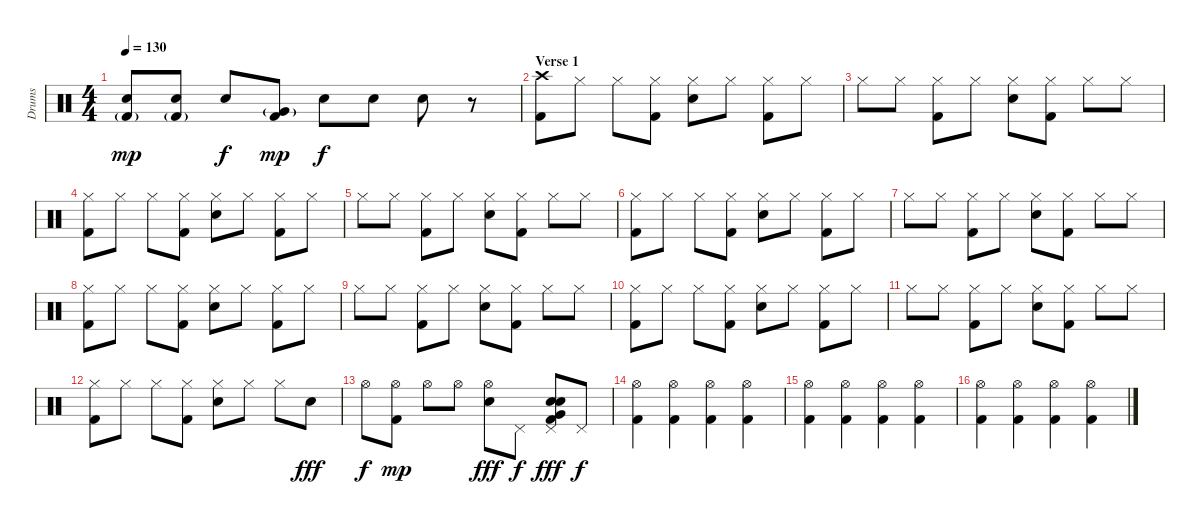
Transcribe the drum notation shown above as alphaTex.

\track ("Drums" "Drums") {instrument percussion}
\staff {score}
\articulation defaults
\ts (4 4)
\tempo 130
\clef neutral
\ks c
("Snare (hit) 2" "Kick (hit) 2"{g}).8{dy mp} ("Snare (hit) 2" "Kick (hit) 2"{g}).8 "Snare (hit) 2".8{dy f} ("Very Low Tom (hit)"{g} "Kick (hit) 2").8{dy mp} "Snare (hit) 2".8{dy f} "Snare (hit) 2".8 "Snare (hit) 2".8 r.8 |
\section ("" "Verse 1")
("Crash high (hit)" "Kick (hit) 2").8 "Hi-Hat (closed)".8 "Hi-Hat (closed)".8 ("Hi-Hat (closed)" "Kick (hit) 2").8 ("Hi-Hat (closed)" "Snare (hit) 2").8 "Hi-Hat (closed)".8 ("Hi-Hat (closed)" "Kick (hit) 2").8 "Hi-Hat (closed)".8 |
"Hi-Hat (closed)".8 "Hi-Hat (closed)".8 ("Hi-Hat (closed)" "Kick (hit) 2").8 "Hi-Hat (closed)".8 ("Hi-Hat (closed)" "Snare (hit) 2").8 ("Hi-Hat (closed)" "Kick (hit) 2").8 "Hi-Hat (closed)".8 "Hi-Hat (closed)".8 |
("Hi-Hat (closed)" "Kick (hit) 2").8 "Hi-Hat (closed)".8 "Hi-Hat (closed)".8 ("Hi-Hat (closed)" "Kick (hit) 2").8 ("Hi-Hat (closed)" "Snare (hit) 2").8 "Hi-Hat (closed)".8 ("Hi-Hat (closed)" "Kick (hit) 2").8 "Hi-Hat (closed)".8 |
"Hi-Hat (closed)".8 "Hi-Hat (closed)".8 ("Hi-Hat (closed)" "Kick (hit) 2").8 "Hi-Hat (closed)".8 ("Hi-Hat (closed)" "Snare (hit) 2").8 ("Hi-Hat (closed)" "Kick (hit) 2").8 "Hi-Hat (closed)".8 "Hi-Hat (closed)".8 |
("Hi-Hat (closed)" "Kick (hit) 2").8 "Hi-Hat (closed)".8 "Hi-Hat (closed)".8 ("Hi-Hat (closed)" "Kick (hit) 2").8 ("Hi-Hat (closed)" "Snare (hit) 2").8 "Hi-Hat (closed)".8 ("Hi-Hat (closed)" "Kick (hit) 2").8 "Hi-Hat (closed)".8 |
"Hi-Hat (closed)".8 "Hi-Hat (closed)".8 ("Hi-Hat (closed)" "Kick (hit) 2").8 "Hi-Hat (closed)".8 ("Hi-Hat (closed)" "Snare (hit) 2").8 ("Hi-Hat (closed)" "Kick (hit) 2").8 "Hi-Hat (closed)".8 "Hi-Hat (closed)".8 |
("Hi-Hat (closed)" "Kick (hit) 2").8 "Hi-Hat (closed)".8 "Hi-Hat (closed)".8 ("Hi-Hat (closed)" "Kick (hit) 2").8 ("Hi-Hat (closed)" "Snare (hit) 2").8 "Hi-Hat (closed)".8 ("Hi-Hat (closed)" "Kick (hit) 2").8 "Hi-Hat (closed)".8 |
"Hi-Hat (closed)".8 "Hi-Hat (closed)".8 ("Hi-Hat (closed)" "Kick (hit) 2").8 "Hi-Hat (closed)".8 ("Hi-Hat (closed)" "Snare (hit) 2").8 ("Hi-Hat (closed)" "Kick (hit) 2").8 "Hi-Hat (closed)".8 "Hi-Hat (closed)".8 |
("Hi-Hat (closed)" "Kick (hit) 2").8 "Hi-Hat (closed)".8 "Hi-Hat (closed)".8 ("Hi-Hat (closed)" "Kick (hit) 2").8 ("Hi-Hat (closed)" "Snare (hit) 2").8 "Hi-Hat (closed)".8 ("Hi-Hat (closed)" "Kick (hit) 2").8 "Hi-Hat (closed)".8 |
"Hi-Hat (closed)".8 "Hi-Hat (closed)".8 ("Hi-Hat (closed)" "Kick (hit) 2").8 "Hi-Hat (closed)".8 ("Hi-Hat (closed)" "Snare (hit) 2").8 ("Hi-Hat (closed)" "Kick (hit) 2").8 "Hi-Hat (closed)".8 "Hi-Hat (closed)".8 |
("Hi-Hat (closed)" "Kick (hit) 2").8 "Hi-Hat (closed)".8 "Hi-Hat (closed)".8 ("Hi-Hat (closed)" "Kick (hit) 2").8 ("Hi-Hat (closed)" "Snare (hit) 2").8 "Hi-Hat (closed)".8 "Hi-Hat (closed)".8 "Snare (hit) 2".8{dy fff} |
"Hi-Hat (open)".8{dy f} ("Hi-Hat (open)" "Kick (hit) 2").8{dy mp} "Hi-Hat (open)".8 "Hi-Hat (open)".8 ("Hi-Hat (open)" "Snare (hit) 2").8{dy fff} "Pedal Hi-Hat (hit)".8{dy f} ("Pedal Hi-Hat (hit)" "Snare (hit) 2" "Snare (hit) 2" "Very Low Tom (hit)" "Kick (hit) 2").8{dy fff} "Pedal Hi-Hat (hit)".8{dy f} |
("Hi-Hat (open)" "Kick (hit) 2").4 ("Hi-Hat (open)" "Kick (hit) 2").4 ("Hi-Hat (open)" "Kick (hit) 2").4 ("Hi-Hat (open)" "Kick (hit) 2").4 |
("Hi-Hat (open)" "Kick (hit) 2").4 ("Hi-Hat (open)" "Kick (hit) 2").4 ("Hi-Hat (open)" "Kick (hit) 2").4 ("Hi-Hat (open)" "Kick (hit) 2").4 |
("Hi-Hat (open)" "Kick (hit) 2").4 ("Hi-Hat (open)" "Kick (hit) 2").4 ("Hi-Hat (open)" "Kick (hit) 2").4 ("Hi-Hat (open)" "Kick (hit) 2").4
